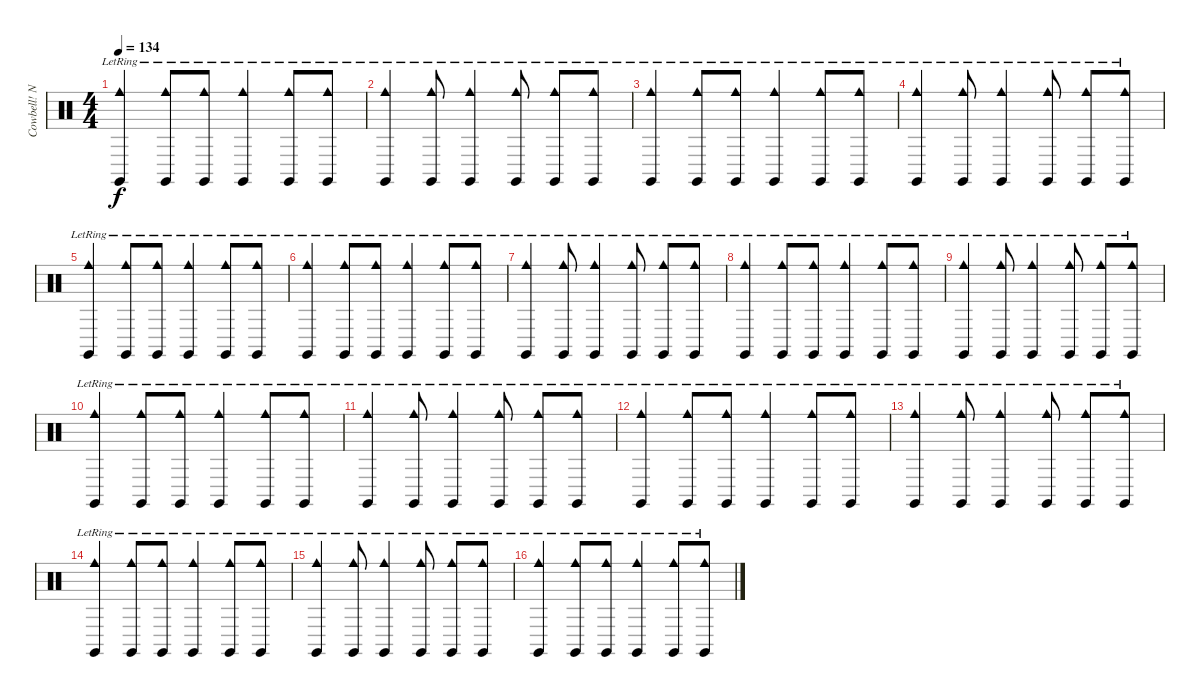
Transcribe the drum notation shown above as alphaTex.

\track ("Cowbell! Need More Cowbell!" "Cowbell! N") {instrument percussion}
\staff {score}
\articulation defaults
\ts (4 4)
\tempo 134
\clef neutral
\ks c
("Cowbell medium (hit)"{lr} "Claves (hit)").4{dy f} ("Cowbell medium (hit)"{lr} "Claves (hit)").8 ("Cowbell medium (hit)"{lr} "Claves (hit)").8 ("Cowbell medium (hit)"{lr} "Claves (hit)").4 ("Cowbell medium (hit)"{lr} "Claves (hit)").8 ("Cowbell medium (hit)"{lr} "Claves (hit)").8 |
("Cowbell medium (hit)"{lr} "Claves (hit)").4 ("Cowbell medium (hit)"{lr} "Claves (hit)").8 ("Cowbell medium (hit)"{lr} "Claves (hit)").4 ("Cowbell medium (hit)"{lr} "Claves (hit)").8 ("Cowbell medium (hit)"{lr} "Claves (hit)").8 ("Cowbell medium (hit)"{lr} "Claves (hit)").8 |
("Cowbell medium (hit)"{lr} "Claves (hit)").4 ("Cowbell medium (hit)"{lr} "Claves (hit)").8 ("Cowbell medium (hit)"{lr} "Claves (hit)").8 ("Cowbell medium (hit)"{lr} "Claves (hit)").4 ("Cowbell medium (hit)"{lr} "Claves (hit)").8 ("Cowbell medium (hit)"{lr} "Claves (hit)").8 |
("Cowbell medium (hit)"{lr} "Claves (hit)").4 ("Cowbell medium (hit)"{lr} "Claves (hit)").8 ("Cowbell medium (hit)"{lr} "Claves (hit)").4 ("Cowbell medium (hit)"{lr} "Claves (hit)").8 ("Cowbell medium (hit)"{lr} "Claves (hit)").8 ("Cowbell medium (hit)"{lr} "Claves (hit)").8 |
("Cowbell medium (hit)"{lr} "Claves (hit)").4 ("Cowbell medium (hit)"{lr} "Claves (hit)").8 ("Cowbell medium (hit)"{lr} "Claves (hit)").8 ("Cowbell medium (hit)"{lr} "Claves (hit)").4 ("Cowbell medium (hit)"{lr} "Claves (hit)").8 ("Cowbell medium (hit)"{lr} "Claves (hit)").8 |
("Cowbell medium (hit)"{lr} "Claves (hit)").4 ("Cowbell medium (hit)"{lr} "Claves (hit)").8 ("Cowbell medium (hit)"{lr} "Claves (hit)").8 ("Cowbell medium (hit)"{lr} "Claves (hit)").4 ("Cowbell medium (hit)"{lr} "Claves (hit)").8 ("Cowbell medium (hit)"{lr} "Claves (hit)").8 |
("Cowbell medium (hit)"{lr} "Claves (hit)").4 ("Cowbell medium (hit)"{lr} "Claves (hit)").8 ("Cowbell medium (hit)"{lr} "Claves (hit)").4 ("Cowbell medium (hit)"{lr} "Claves (hit)").8 ("Cowbell medium (hit)"{lr} "Claves (hit)").8 ("Cowbell medium (hit)"{lr} "Claves (hit)").8 |
("Cowbell medium (hit)"{lr} "Claves (hit)").4 ("Cowbell medium (hit)"{lr} "Claves (hit)").8 ("Cowbell medium (hit)"{lr} "Claves (hit)").8 ("Cowbell medium (hit)"{lr} "Claves (hit)").4 ("Cowbell medium (hit)"{lr} "Claves (hit)").8 ("Cowbell medium (hit)"{lr} "Claves (hit)").8 |
("Cowbell medium (hit)"{lr} "Claves (hit)").4 ("Cowbell medium (hit)"{lr} "Claves (hit)").8 ("Cowbell medium (hit)"{lr} "Claves (hit)").4 ("Cowbell medium (hit)"{lr} "Claves (hit)").8 ("Cowbell medium (hit)"{lr} "Claves (hit)").8 ("Cowbell medium (hit)"{lr} "Claves (hit)").8 |
("Cowbell medium (hit)"{lr} "Claves (hit)").4 ("Cowbell medium (hit)"{lr} "Claves (hit)").8 ("Cowbell medium (hit)"{lr} "Claves (hit)").8 ("Cowbell medium (hit)"{lr} "Claves (hit)").4 ("Cowbell medium (hit)"{lr} "Claves (hit)").8 ("Cowbell medium (hit)"{lr} "Claves (hit)").8 |
("Cowbell medium (hit)"{lr} "Claves (hit)").4 ("Cowbell medium (hit)"{lr} "Claves (hit)").8 ("Cowbell medium (hit)"{lr} "Claves (hit)").4 ("Cowbell medium (hit)"{lr} "Claves (hit)").8 ("Cowbell medium (hit)"{lr} "Claves (hit)").8 ("Cowbell medium (hit)"{lr} "Claves (hit)").8 |
("Cowbell medium (hit)"{lr} "Claves (hit)").4 ("Cowbell medium (hit)"{lr} "Claves (hit)").8 ("Cowbell medium (hit)"{lr} "Claves (hit)").8 ("Cowbell medium (hit)"{lr} "Claves (hit)").4 ("Cowbell medium (hit)"{lr} "Claves (hit)").8 ("Cowbell medium (hit)"{lr} "Claves (hit)").8 |
("Cowbell medium (hit)"{lr} "Claves (hit)").4 ("Cowbell medium (hit)"{lr} "Claves (hit)").8 ("Cowbell medium (hit)"{lr} "Claves (hit)").4 ("Cowbell medium (hit)"{lr} "Claves (hit)").8 ("Cowbell medium (hit)"{lr} "Claves (hit)").8 ("Cowbell medium (hit)"{lr} "Claves (hit)").8 |
("Cowbell medium (hit)"{lr} "Claves (hit)").4 ("Cowbell medium (hit)"{lr} "Claves (hit)").8 ("Cowbell medium (hit)"{lr} "Claves (hit)").8 ("Cowbell medium (hit)"{lr} "Claves (hit)").4 ("Cowbell medium (hit)"{lr} "Claves (hit)").8 ("Cowbell medium (hit)"{lr} "Claves (hit)").8 |
("Cowbell medium (hit)"{lr} "Claves (hit)").4 ("Cowbell medium (hit)"{lr} "Claves (hit)").8 ("Cowbell medium (hit)"{lr} "Claves (hit)").4 ("Cowbell medium (hit)"{lr} "Claves (hit)").8 ("Cowbell medium (hit)"{lr} "Claves (hit)").8 ("Cowbell medium (hit)"{lr} "Claves (hit)").8 |
("Cowbell medium (hit)"{lr} "Claves (hit)").4 ("Cowbell medium (hit)"{lr} "Claves (hit)").8 ("Cowbell medium (hit)"{lr} "Claves (hit)").8 ("Cowbell medium (hit)"{lr} "Claves (hit)").4 ("Cowbell medium (hit)"{lr} "Claves (hit)").8 ("Cowbell medium (hit)"{lr} "Claves (hit)").8
